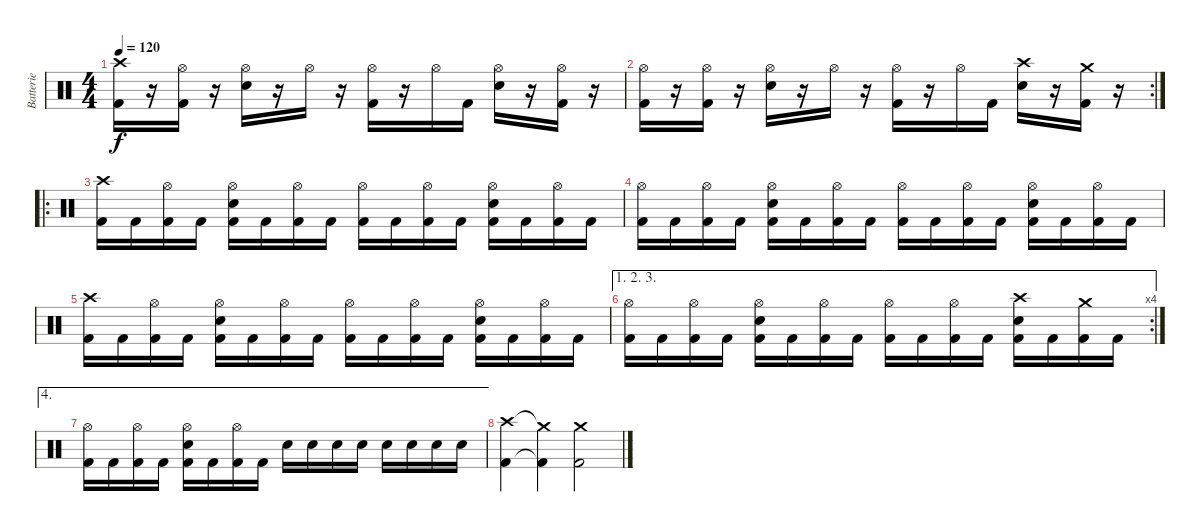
\track ("Batterie" "Batterie") {instrument percussion}
\staff {score}
\articulation defaults
\ts (4 4)
\tempo 120
\clef neutral
\ks c
("Crash high (hit)" "Kick (hit) 2").16{dy f} r.16 ("Hi-Hat (open)" "Kick (hit) 2").16 r.16 ("Hi-Hat (open)" "Snare (hit) 2").16 r.16 "Hi-Hat (open)".16 r.16 ("Hi-Hat (open)" "Kick (hit) 2").16 r.16 "Hi-Hat (open)".16 "Kick (hit) 2".16 ("Hi-Hat (open)" "Snare (hit) 2").16 r.16 ("Hi-Hat (open)" "Kick (hit) 2").16 r.16 |
\rc 2
("Hi-Hat (open)" "Kick (hit) 2").16 r.16 ("Hi-Hat (open)" "Kick (hit) 2").16 r.16 ("Hi-Hat (open)" "Snare (hit) 2").16 r.16 "Hi-Hat (open)".16 r.16 ("Hi-Hat (open)" "Kick (hit) 2").16 r.16 "Hi-Hat (open)".16 "Kick (hit) 2".16 ("Crash high (hit)" "Snare (hit) 2").16 r.16 ("Crash medium (hit)" "Kick (hit) 2").16 r.16 |
\ro
("Crash high (hit)" "Kick (hit) 2").16 "Kick (hit) 2".16 ("Hi-Hat (open)" "Kick (hit) 2").16 "Kick (hit) 2".16 ("Hi-Hat (open)" "Snare (hit) 2" "Kick (hit) 2").16 "Kick (hit) 2".16 ("Hi-Hat (open)" "Kick (hit) 2").16 "Kick (hit) 2".16 ("Hi-Hat (open)" "Kick (hit) 2").16 "Kick (hit) 2".16 ("Hi-Hat (open)" "Kick (hit) 2").16 "Kick (hit) 2".16 ("Hi-Hat (open)" "Snare (hit) 2" "Kick (hit) 2").16 "Kick (hit) 2".16 ("Hi-Hat (open)" "Kick (hit) 2").16 "Kick (hit) 2".16 |
("Hi-Hat (open)" "Kick (hit) 2").16 "Kick (hit) 2".16 ("Hi-Hat (open)" "Kick (hit) 2").16 "Kick (hit) 2".16 ("Hi-Hat (open)" "Snare (hit) 2" "Kick (hit) 2").16 "Kick (hit) 2".16 ("Hi-Hat (open)" "Kick (hit) 2").16 "Kick (hit) 2".16 ("Hi-Hat (open)" "Kick (hit) 2").16 "Kick (hit) 2".16 ("Hi-Hat (open)" "Kick (hit) 2").16 "Kick (hit) 2".16 ("Hi-Hat (open)" "Snare (hit) 2" "Kick (hit) 2").16 "Kick (hit) 2".16 ("Hi-Hat (open)" "Kick (hit) 2").16 "Kick (hit) 2".16 |
("Crash high (hit)" "Kick (hit) 2").16 "Kick (hit) 2".16 ("Hi-Hat (open)" "Kick (hit) 2").16 "Kick (hit) 2".16 ("Hi-Hat (open)" "Snare (hit) 2" "Kick (hit) 2").16 "Kick (hit) 2".16 ("Hi-Hat (open)" "Kick (hit) 2").16 "Kick (hit) 2".16 ("Hi-Hat (open)" "Kick (hit) 2").16 "Kick (hit) 2".16 ("Hi-Hat (open)" "Kick (hit) 2").16 "Kick (hit) 2".16 ("Hi-Hat (open)" "Snare (hit) 2" "Kick (hit) 2").16 "Kick (hit) 2".16 ("Hi-Hat (open)" "Kick (hit) 2").16 "Kick (hit) 2".16 |
\ae (1 2 3)
\rc 4
("Hi-Hat (open)" "Kick (hit) 2").16 "Kick (hit) 2".16 ("Hi-Hat (open)" "Kick (hit) 2").16 "Kick (hit) 2".16 ("Hi-Hat (open)" "Snare (hit) 2" "Kick (hit) 2").16 "Kick (hit) 2".16 ("Hi-Hat (open)" "Kick (hit) 2").16 "Kick (hit) 2".16 ("Hi-Hat (open)" "Kick (hit) 2").16 "Kick (hit) 2".16 ("Hi-Hat (open)" "Kick (hit) 2").16 "Kick (hit) 2".16 ("Crash high (hit)" "Snare (hit) 2" "Kick (hit) 2").16 "Kick (hit) 2".16 ("Crash medium (hit)" "Kick (hit) 2").16 "Kick (hit) 2".16 |
\ae 4
("Hi-Hat (open)" "Kick (hit) 2").16 "Kick (hit) 2".16 ("Hi-Hat (open)" "Kick (hit) 2").16 "Kick (hit) 2".16 ("Hi-Hat (open)" "Snare (hit) 2" "Kick (hit) 2").16 "Kick (hit) 2".16 ("Hi-Hat (open)" "Kick (hit) 2").16 "Kick (hit) 2".16 "Snare (hit) 2".16 "Snare (hit) 2".16 "Snare (hit) 2".16 "Snare (hit) 2".16 "Snare (hit) 2".16 "Snare (hit) 2".16 "Snare (hit) 2".16 "Snare (hit) 2".16 |
("Crash high (hit)" "Kick (hit) 2").4 ("Crash medium (hit)"{t} "Kick (hit) 2"{t}).4 ("Crash medium (hit)" "Kick (hit) 2").2
